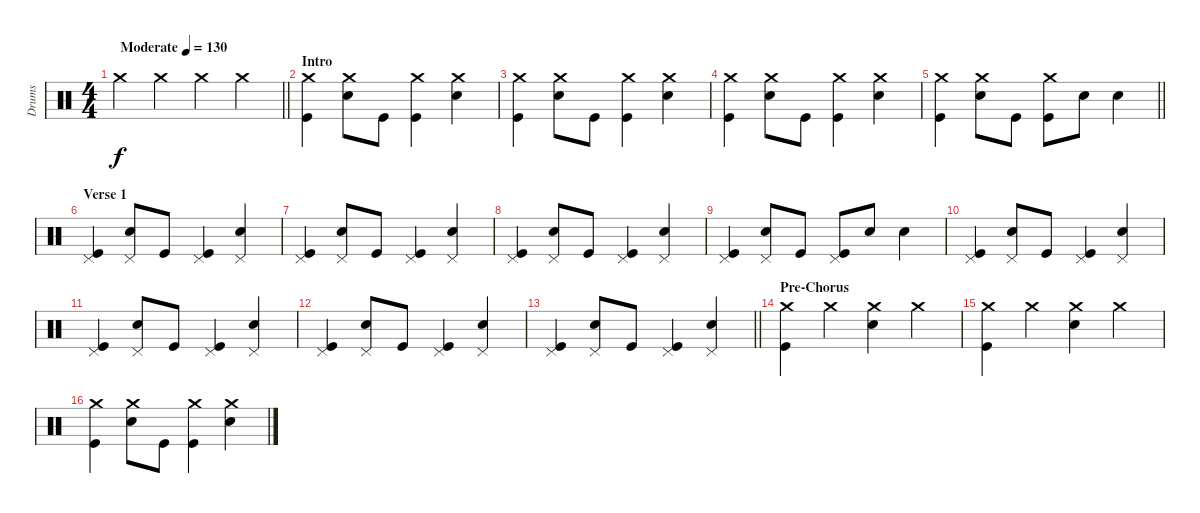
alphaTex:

\track ("Drums" "Drums") {instrument percussion}
\staff {score}
\articulation defaults
\ts (4 4)
\tempo (130 "Moderate")
\clef neutral
\barLineRight lightlight
\ks c "Crash medium (hit)".4{dy f} "Crash medium (hit)".4 "Crash medium (hit)".4 "Crash medium (hit)".4
|
\section ("" "Intro")
("Kick (hit)" "Crash medium (hit)").4 ("Electric Snare (hit)" "Crash medium (hit)").8 "Kick (hit)".8 ("Kick (hit)" "Crash medium (hit)").4 ("Electric Snare (hit)" "Crash medium (hit)").4 |
("Kick (hit)" "Crash medium (hit)").4 ("Electric Snare (hit)" "Crash medium (hit)").8 "Kick (hit)".8 ("Kick (hit)" "Crash medium (hit)").4 ("Electric Snare (hit)" "Crash medium (hit)").4 |
("Kick (hit)" "Crash medium (hit)").4 ("Electric Snare (hit)" "Crash medium (hit)").8 "Kick (hit)".8 ("Kick (hit)" "Crash medium (hit)").4 ("Electric Snare (hit)" "Crash medium (hit)").4 |
\barLineRight lightlight
("Kick (hit)" "Crash medium (hit)").4 ("Electric Snare (hit)" "Crash medium (hit)").8 "Kick (hit)".8 ("Kick (hit)" "Crash medium (hit)").8 "Electric Snare (hit)".8 "Electric Snare (hit)".4 |
\section ("" "Verse 1")
("Kick (hit)" "Pedal Hi-Hat (hit)").4 ("Electric Snare (hit)" "Pedal Hi-Hat (hit)").8 "Kick (hit)".8 ("Kick (hit)" "Pedal Hi-Hat (hit)").4 ("Electric Snare (hit)" "Pedal Hi-Hat (hit)").4 |
("Kick (hit)" "Pedal Hi-Hat (hit)").4 ("Electric Snare (hit)" "Pedal Hi-Hat (hit)").8 "Kick (hit)".8 ("Kick (hit)" "Pedal Hi-Hat (hit)").4 ("Electric Snare (hit)" "Pedal Hi-Hat (hit)").4 |
("Kick (hit)" "Pedal Hi-Hat (hit)").4 ("Electric Snare (hit)" "Pedal Hi-Hat (hit)").8 "Kick (hit)".8 ("Kick (hit)" "Pedal Hi-Hat (hit)").4 ("Electric Snare (hit)" "Pedal Hi-Hat (hit)").4 |
("Kick (hit)" "Pedal Hi-Hat (hit)").4 ("Electric Snare (hit)" "Pedal Hi-Hat (hit)").8 "Kick (hit)".8 ("Kick (hit)" "Pedal Hi-Hat (hit)").8 "Electric Snare (hit)".8 "Electric Snare (hit)".4 |
("Kick (hit)" "Pedal Hi-Hat (hit)").4 ("Electric Snare (hit)" "Pedal Hi-Hat (hit)").8 "Kick (hit)".8 ("Kick (hit)" "Pedal Hi-Hat (hit)").4 ("Electric Snare (hit)" "Pedal Hi-Hat (hit)").4 |
("Kick (hit)" "Pedal Hi-Hat (hit)").4 ("Electric Snare (hit)" "Pedal Hi-Hat (hit)").8 "Kick (hit)".8 ("Kick (hit)" "Pedal Hi-Hat (hit)").4 ("Electric Snare (hit)" "Pedal Hi-Hat (hit)").4 |
("Kick (hit)" "Pedal Hi-Hat (hit)").4 ("Electric Snare (hit)" "Pedal Hi-Hat (hit)").8 "Kick (hit)".8 ("Kick (hit)" "Pedal Hi-Hat (hit)").4 ("Electric Snare (hit)" "Pedal Hi-Hat (hit)").4 |
\barLineRight lightlight
("Kick (hit)" "Pedal Hi-Hat (hit)").4 ("Electric Snare (hit)" "Pedal Hi-Hat (hit)").8 "Kick (hit)".8 ("Kick (hit)" "Pedal Hi-Hat (hit)").4 ("Electric Snare (hit)" "Pedal Hi-Hat (hit)").4 |
\section ("" "Pre-Chorus")
("Kick (hit)" "Crash medium (hit)").4 "Crash medium (hit)".4 ("Electric Snare (hit)" "Crash medium (hit)").4 "Crash medium (hit)".4 |
("Kick (hit)" "Crash medium (hit)").4 "Crash medium (hit)".4 ("Electric Snare (hit)" "Crash medium (hit)").4 "Crash medium (hit)".4 |
("Kick (hit)" "Crash medium (hit)").4 ("Electric Snare (hit)" "Crash medium (hit)").8 "Kick (hit)".8 ("Kick (hit)" "Crash medium (hit)").4 ("Electric Snare (hit)" "Crash medium (hit)").4
